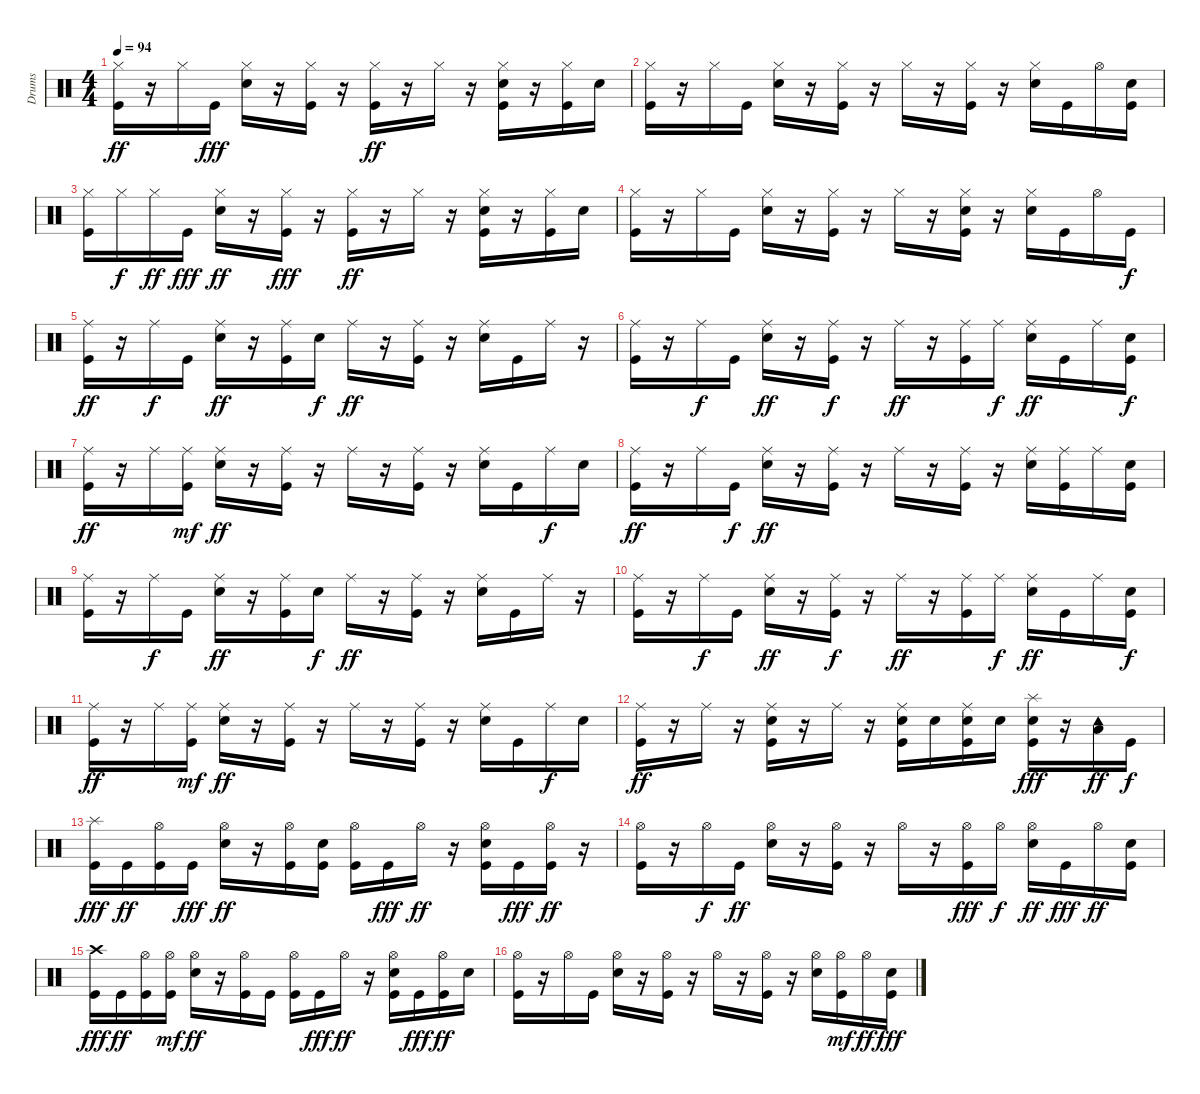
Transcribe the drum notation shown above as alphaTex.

\track ("Drums" "Drums") {instrument percussion}
\staff {score}
\articulation defaults
\ts (4 4)
\tempo 94
\clef neutral
\ks c
("Hi-Hat (closed)" "Kick (hit)").16{dy ff} r.16 "Hi-Hat (closed)".16 "Kick (hit)".16{dy fff} ("Hi-Hat (closed)" "Snare (hit) 2").16 r.16 ("Hi-Hat (closed)" "Kick (hit)").16 r.16 ("Hi-Hat (closed)" "Kick (hit)").16{dy ff} r.16 "Hi-Hat (closed)".16 r.16 ("Hi-Hat (closed)" "Kick (hit)" "Snare (hit) 2").16 r.16 ("Hi-Hat (closed)" "Kick (hit)").16 "Snare (hit) 2".16 |
("Hi-Hat (closed)" "Kick (hit)").16 r.16 "Hi-Hat (closed)".16 "Kick (hit)".16 ("Snare (hit) 2" "Hi-Hat (closed)").16 r.16 ("Hi-Hat (closed)" "Kick (hit)").16 r.16 "Hi-Hat (closed)".16 r.16 ("Hi-Hat (closed)" "Kick (hit)").16 r.16 ("Snare (hit) 2" "Hi-Hat (closed)").16 "Kick (hit)".16 "Hi-Hat (open)".16 ("Snare (hit) 2" "Kick (hit)").16 |
("Hi-Hat (closed)" "Kick (hit)").16 "Hi-Hat (closed)".16{dy f} "Hi-Hat (closed)".16{dy ff} "Kick (hit)".16{dy fff} ("Hi-Hat (closed)" "Snare (hit) 2").16{dy ff} r.16 ("Hi-Hat (closed)" "Kick (hit)").16{dy fff} r.16 ("Hi-Hat (closed)" "Kick (hit)").16{dy ff} r.16 "Hi-Hat (closed)".16 r.16 ("Hi-Hat (closed)" "Kick (hit)" "Snare (hit) 2").16 r.16 ("Hi-Hat (closed)" "Kick (hit)").16 "Snare (hit) 2".16 |
("Hi-Hat (closed)" "Kick (hit)").16 r.16 "Hi-Hat (closed)".16 "Kick (hit)".16 ("Snare (hit) 2" "Hi-Hat (closed)").16 r.16 ("Hi-Hat (closed)" "Kick (hit)").16 r.16 "Hi-Hat (closed)".16 r.16 ("Snare (hit) 2" "Hi-Hat (closed)" "Kick (hit)").16 r.16 ("Snare (hit) 2" "Hi-Hat (closed)").16 "Kick (hit)".16 "Hi-Hat (open)".16 "Kick (hit)".16{dy f} |
("Ride (middle)" "Kick (hit)").16{dy ff} r.16 "Ride (middle)".16{dy f} "Kick (hit)".16 ("Ride (middle)" "Snare (hit) 2").16{dy ff} r.16 ("Ride (middle)" "Kick (hit)").16 "Snare (hit) 2".16{dy f} "Ride (middle)".16{dy ff} r.16 ("Ride (middle)" "Kick (hit)").16 r.16 ("Ride (middle)" "Snare (hit) 2").16 "Kick (hit)".16 "Ride (middle)".16 r.16 |
("Ride (middle)" "Kick (hit)").16 r.16 "Ride (middle)".16{dy f} "Kick (hit)".16 ("Ride (middle)" "Snare (hit) 2").16{dy ff} r.16 ("Ride (middle)" "Kick (hit)").16{dy f} r.16 "Ride (middle)".16{dy ff} r.16 ("Ride (middle)" "Kick (hit)").16 "Ride (middle)".16{dy f} ("Ride (middle)" "Snare (hit) 2").16{dy ff} "Kick (hit)".16 "Ride (middle)".16 ("Kick (hit)" "Snare (hit) 2").16{dy f} |
("Ride (middle)" "Kick (hit)").16{dy ff} r.16 "Ride (middle)".16 ("Ride (middle)" "Kick (hit)").16{dy mf} ("Ride (middle)" "Snare (hit) 2").16{dy ff} r.16 ("Ride (middle)" "Kick (hit)").16 r.16 "Ride (middle)".16 r.16 ("Ride (middle)" "Kick (hit)").16 r.16 ("Ride (middle)" "Snare (hit) 2").16 "Kick (hit)".16 "Ride (middle)".16{dy f} "Snare (hit) 2".16 |
("Ride (middle)" "Kick (hit)").16{dy ff} r.16 "Ride (middle)".16 "Kick (hit)".16{dy f} ("Ride (middle)" "Snare (hit) 2").16{dy ff} r.16 ("Ride (middle)" "Kick (hit)").16 r.16 "Ride (middle)".16 r.16 ("Ride (middle)" "Kick (hit)").16 r.16 ("Ride (middle)" "Snare (hit) 2").16 ("Ride (middle)" "Kick (hit)").16 "Ride (middle)".16 ("Kick (hit)" "Snare (hit) 2").16 |
("Ride (middle)" "Kick (hit)").16 r.16 "Ride (middle)".16{dy f} "Kick (hit)".16 ("Ride (middle)" "Snare (hit) 2").16{dy ff} r.16 ("Ride (middle)" "Kick (hit)").16 "Snare (hit) 2".16{dy f} "Ride (middle)".16{dy ff} r.16 ("Ride (middle)" "Kick (hit)").16 r.16 ("Ride (middle)" "Snare (hit) 2").16 "Kick (hit)".16 "Ride (middle)".16 r.16 |
("Ride (middle)" "Kick (hit)").16 r.16 "Ride (middle)".16{dy f} "Kick (hit)".16 ("Ride (middle)" "Snare (hit) 2").16{dy ff} r.16 ("Ride (middle)" "Kick (hit)").16{dy f} r.16 "Ride (middle)".16{dy ff} r.16 ("Ride (middle)" "Kick (hit)").16 "Ride (middle)".16{dy f} ("Ride (middle)" "Snare (hit) 2").16{dy ff} "Kick (hit)".16 "Ride (middle)".16 ("Kick (hit)" "Snare (hit) 2").16{dy f} |
("Ride (middle)" "Kick (hit)").16{dy ff} r.16 "Ride (middle)".16 ("Ride (middle)" "Kick (hit)").16{dy mf} ("Ride (middle)" "Snare (hit) 2").16{dy ff} r.16 ("Ride (middle)" "Kick (hit)").16 r.16 "Ride (middle)".16 r.16 ("Ride (middle)" "Kick (hit)").16 r.16 ("Ride (middle)" "Snare (hit) 2").16 "Kick (hit)".16 "Ride (middle)".16{dy f} "Snare (hit) 2".16 |
("Ride (middle)" "Kick (hit)").16{dy ff} r.16 "Ride (middle)".16 r.16 ("Snare (hit) 2" "Kick (hit)" "Ride (middle)").16 r.16 "Ride (middle)".16 r.16 ("Kick (hit)" "Snare (hit) 2" "Ride (middle)").16 "Snare (hit) 2".16 ("Ride (middle)" "Kick (hit)" "Snare (hit) 2").16 "Snare (hit) 2".16 ("Splash (hit)" "Kick (hit)" "Snare (hit) 2").16{dy fff} r.16 ("Tambourine (hit)" "Low Floor Tom (hit)").16{dy ff} "Kick (hit)".16{dy f} |
("Splash (hit)" "Kick (hit)").16{dy fff} "Kick (hit)".16{dy ff} ("Kick (hit)" "Hi-Hat (open)").16 "Kick (hit)".16{dy fff} ("Snare (hit) 2" "Hi-Hat (open)").16{dy ff} r.16 ("Kick (hit)" "Hi-Hat (open)").16 ("Kick (hit)" "Snare (hit) 2").16 ("Kick (hit)" "Hi-Hat (open)").16 "Kick (hit)".16{dy fff} "Hi-Hat (open)".16{dy ff} r.16 ("Kick (hit)" "Snare (hit) 2" "Hi-Hat (open)").16 "Kick (hit)".16{dy fff} ("Kick (hit)" "Hi-Hat (open)").16{dy ff} r.16 |
("Kick (hit)" "Hi-Hat (open)").16 r.16 "Hi-Hat (open)".16{dy f} "Kick (hit)".16{dy ff} ("Snare (hit) 2" "Hi-Hat (open)").16 r.16 ("Kick (hit)" "Hi-Hat (open)").16 r.16 "Hi-Hat (open)".16 r.16 ("Kick (hit)" "Hi-Hat (open)").16{dy fff} "Hi-Hat (open)".16{dy f} ("Snare (hit) 2" "Hi-Hat (open)").16{dy ff} "Kick (hit)".16{dy fff} "Hi-Hat (open)".16{dy ff} ("Kick (hit)" "Snare (hit) 2").16 |
("Crash high (hit)" "Kick (hit)").16{dy fff} "Kick (hit)".16{dy ff} ("Kick (hit)" "Hi-Hat (open)").16 ("Kick (hit)" "Hi-Hat (open)").16{dy mf} ("Snare (hit) 2" "Hi-Hat (open)").16{dy ff} r.16 ("Kick (hit)" "Hi-Hat (open)").16 "Kick (hit)".16 ("Kick (hit)" "Hi-Hat (open)").16 "Kick (hit)".16{dy fff} "Hi-Hat (open)".16{dy ff} r.16 ("Kick (hit)" "Snare (hit) 2" "Hi-Hat (open)").16 "Kick (hit)".16{dy fff} ("Kick (hit)" "Hi-Hat (open)").16{dy ff} "Snare (hit) 2".16 |
("Kick (hit)" "Hi-Hat (open)").16 r.16 "Hi-Hat (open)".16 "Kick (hit)".16 ("Snare (hit) 2" "Hi-Hat (open)").16 r.16 ("Kick (hit)" "Hi-Hat (open)").16 r.16 "Hi-Hat (open)".16 r.16 ("Kick (hit)" "Hi-Hat (open)").16 r.16 ("Snare (hit) 2" "Hi-Hat (open)").16 ("Kick (hit)" "Hi-Hat (open)").16{dy mf} "Hi-Hat (open)".16{dy ff} ("Kick (hit)" "Snare (hit) 2").16{dy fff}
